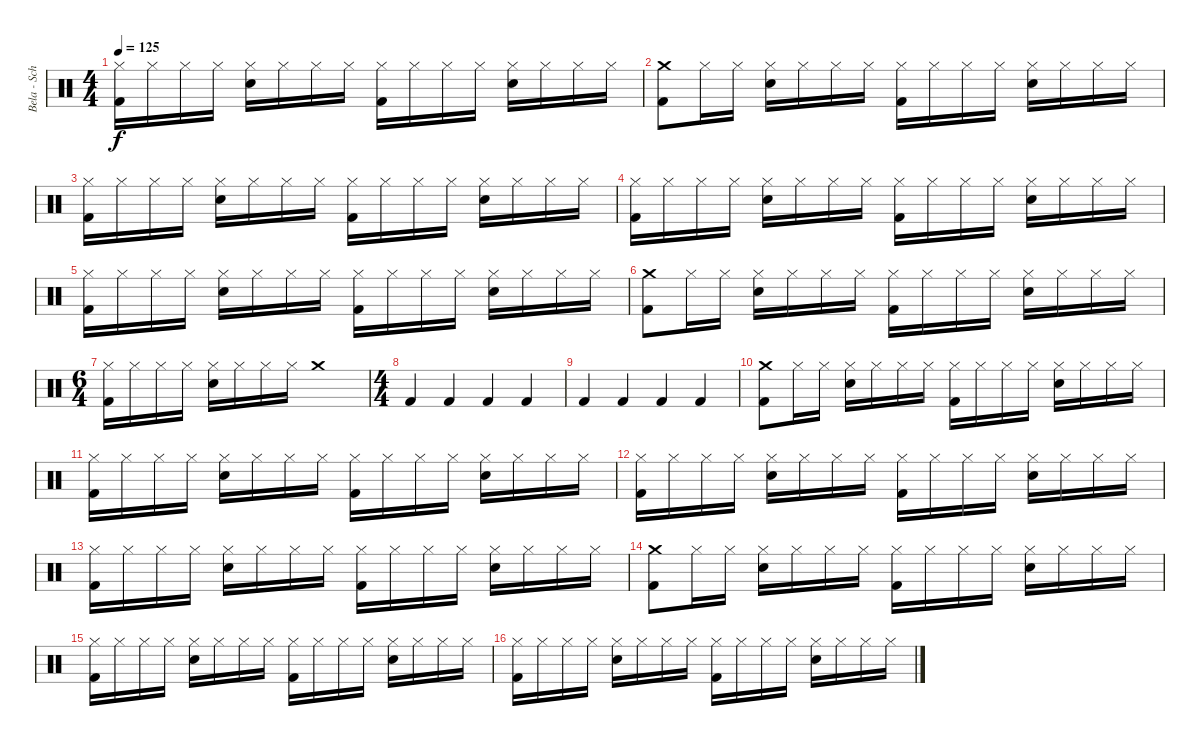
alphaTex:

\track ("Bela - Schlagzeug" "Bela - Sch") {instrument percussion}
\staff {score}
\articulation defaults
\ts (4 4)
\tempo 125
\clef neutral
\ks c
("Hi-Hat (closed)" "Kick (hit) 2").16{dy f} "Hi-Hat (closed)".16 "Hi-Hat (closed)".16 "Hi-Hat (closed)".16 ("Hi-Hat (closed)" "Electric Snare (hit)").16 "Hi-Hat (closed)".16 "Hi-Hat (closed)".16 "Hi-Hat (closed)".16 ("Hi-Hat (closed)" "Kick (hit) 2").16 "Hi-Hat (closed)".16 "Hi-Hat (closed)".16 "Hi-Hat (closed)".16 ("Hi-Hat (closed)" "Electric Snare (hit)").16 "Hi-Hat (closed)".16 "Hi-Hat (closed)".16 "Hi-Hat (closed)".16 |
("Crash medium (hit)" "Kick (hit) 2").8 "Hi-Hat (closed)".16 "Hi-Hat (closed)".16 ("Hi-Hat (closed)" "Electric Snare (hit)").16 "Hi-Hat (closed)".16 "Hi-Hat (closed)".16 "Hi-Hat (closed)".16 ("Hi-Hat (closed)" "Kick (hit) 2").16 "Hi-Hat (closed)".16 "Hi-Hat (closed)".16 "Hi-Hat (closed)".16 ("Hi-Hat (closed)" "Electric Snare (hit)").16 "Hi-Hat (closed)".16 "Hi-Hat (closed)".16 "Hi-Hat (closed)".16 |
("Hi-Hat (closed)" "Kick (hit) 2").16 "Hi-Hat (closed)".16 "Hi-Hat (closed)".16 "Hi-Hat (closed)".16 ("Hi-Hat (closed)" "Electric Snare (hit)").16 "Hi-Hat (closed)".16 "Hi-Hat (closed)".16 "Hi-Hat (closed)".16 ("Hi-Hat (closed)" "Kick (hit) 2").16 "Hi-Hat (closed)".16 "Hi-Hat (closed)".16 "Hi-Hat (closed)".16 ("Hi-Hat (closed)" "Electric Snare (hit)").16 "Hi-Hat (closed)".16 "Hi-Hat (closed)".16 "Hi-Hat (closed)".16 |
("Hi-Hat (closed)" "Kick (hit) 2").16 "Hi-Hat (closed)".16 "Hi-Hat (closed)".16 "Hi-Hat (closed)".16 ("Hi-Hat (closed)" "Electric Snare (hit)").16 "Hi-Hat (closed)".16 "Hi-Hat (closed)".16 "Hi-Hat (closed)".16 ("Hi-Hat (closed)" "Kick (hit) 2").16 "Hi-Hat (closed)".16 "Hi-Hat (closed)".16 "Hi-Hat (closed)".16 ("Hi-Hat (closed)" "Electric Snare (hit)").16 "Hi-Hat (closed)".16 "Hi-Hat (closed)".16 "Hi-Hat (closed)".16 |
("Hi-Hat (closed)" "Kick (hit) 2").16 "Hi-Hat (closed)".16 "Hi-Hat (closed)".16 "Hi-Hat (closed)".16 ("Hi-Hat (closed)" "Electric Snare (hit)").16 "Hi-Hat (closed)".16 "Hi-Hat (closed)".16 "Hi-Hat (closed)".16 ("Hi-Hat (closed)" "Kick (hit) 2").16 "Hi-Hat (closed)".16 "Hi-Hat (closed)".16 "Hi-Hat (closed)".16 ("Hi-Hat (closed)" "Electric Snare (hit)").16 "Hi-Hat (closed)".16 "Hi-Hat (closed)".16 "Hi-Hat (closed)".16 |
("Crash medium (hit)" "Kick (hit) 2").8 "Hi-Hat (closed)".16 "Hi-Hat (closed)".16 ("Hi-Hat (closed)" "Electric Snare (hit)").16 "Hi-Hat (closed)".16 "Hi-Hat (closed)".16 "Hi-Hat (closed)".16 ("Hi-Hat (closed)" "Kick (hit) 2").16 "Hi-Hat (closed)".16 "Hi-Hat (closed)".16 "Hi-Hat (closed)".16 ("Hi-Hat (closed)" "Electric Snare (hit)").16 "Hi-Hat (closed)".16 "Hi-Hat (closed)".16 "Hi-Hat (closed)".16 |
\ts (6 4)
("Hi-Hat (closed)" "Kick (hit) 2").16 "Hi-Hat (closed)".16 "Hi-Hat (closed)".16 "Hi-Hat (closed)".16 ("Hi-Hat (closed)" "Electric Snare (hit)").16 "Hi-Hat (closed)".16 "Hi-Hat (closed)".16 "Hi-Hat (closed)".16 "Crash medium (hit)".1 |
\ts (4 4)
"Kick (hit) 2".4 "Kick (hit) 2".4 "Kick (hit) 2".4 "Kick (hit) 2".4 |
"Kick (hit) 2".4 "Kick (hit) 2".4 "Kick (hit) 2".4 "Kick (hit) 2".4 |
("Crash medium (hit)" "Kick (hit) 2").8 "Hi-Hat (closed)".16 "Hi-Hat (closed)".16 ("Hi-Hat (closed)" "Electric Snare (hit)").16 "Hi-Hat (closed)".16 "Hi-Hat (closed)".16 "Hi-Hat (closed)".16 ("Hi-Hat (closed)" "Kick (hit) 2").16 "Hi-Hat (closed)".16 "Hi-Hat (closed)".16 "Hi-Hat (closed)".16 ("Hi-Hat (closed)" "Electric Snare (hit)").16 "Hi-Hat (closed)".16 "Hi-Hat (closed)".16 "Hi-Hat (closed)".16 |
("Hi-Hat (closed)" "Kick (hit) 2").16 "Hi-Hat (closed)".16 "Hi-Hat (closed)".16 "Hi-Hat (closed)".16 ("Hi-Hat (closed)" "Electric Snare (hit)").16 "Hi-Hat (closed)".16 "Hi-Hat (closed)".16 "Hi-Hat (closed)".16 ("Hi-Hat (closed)" "Kick (hit) 2").16 "Hi-Hat (closed)".16 "Hi-Hat (closed)".16 "Hi-Hat (closed)".16 ("Hi-Hat (closed)" "Electric Snare (hit)").16 "Hi-Hat (closed)".16 "Hi-Hat (closed)".16 "Hi-Hat (closed)".16 |
("Hi-Hat (closed)" "Kick (hit) 2").16 "Hi-Hat (closed)".16 "Hi-Hat (closed)".16 "Hi-Hat (closed)".16 ("Hi-Hat (closed)" "Electric Snare (hit)").16 "Hi-Hat (closed)".16 "Hi-Hat (closed)".16 "Hi-Hat (closed)".16 ("Hi-Hat (closed)" "Kick (hit) 2").16 "Hi-Hat (closed)".16 "Hi-Hat (closed)".16 "Hi-Hat (closed)".16 ("Hi-Hat (closed)" "Electric Snare (hit)").16 "Hi-Hat (closed)".16 "Hi-Hat (closed)".16 "Hi-Hat (closed)".16 |
("Hi-Hat (closed)" "Kick (hit) 2").16 "Hi-Hat (closed)".16 "Hi-Hat (closed)".16 "Hi-Hat (closed)".16 ("Hi-Hat (closed)" "Electric Snare (hit)").16 "Hi-Hat (closed)".16 "Hi-Hat (closed)".16 "Hi-Hat (closed)".16 ("Hi-Hat (closed)" "Kick (hit) 2").16 "Hi-Hat (closed)".16 "Hi-Hat (closed)".16 "Hi-Hat (closed)".16 ("Hi-Hat (closed)" "Electric Snare (hit)").16 "Hi-Hat (closed)".16 "Hi-Hat (closed)".16 "Hi-Hat (closed)".16 |
("Crash medium (hit)" "Kick (hit) 2").8 "Hi-Hat (closed)".16 "Hi-Hat (closed)".16 ("Hi-Hat (closed)" "Electric Snare (hit)").16 "Hi-Hat (closed)".16 "Hi-Hat (closed)".16 "Hi-Hat (closed)".16 ("Hi-Hat (closed)" "Kick (hit) 2").16 "Hi-Hat (closed)".16 "Hi-Hat (closed)".16 "Hi-Hat (closed)".16 ("Hi-Hat (closed)" "Electric Snare (hit)").16 "Hi-Hat (closed)".16 "Hi-Hat (closed)".16 "Hi-Hat (closed)".16 |
("Hi-Hat (closed)" "Kick (hit) 2").16 "Hi-Hat (closed)".16 "Hi-Hat (closed)".16 "Hi-Hat (closed)".16 ("Hi-Hat (closed)" "Electric Snare (hit)").16 "Hi-Hat (closed)".16 "Hi-Hat (closed)".16 "Hi-Hat (closed)".16 ("Hi-Hat (closed)" "Kick (hit) 2").16 "Hi-Hat (closed)".16 "Hi-Hat (closed)".16 "Hi-Hat (closed)".16 ("Hi-Hat (closed)" "Electric Snare (hit)").16 "Hi-Hat (closed)".16 "Hi-Hat (closed)".16 "Hi-Hat (closed)".16 |
("Hi-Hat (closed)" "Kick (hit) 2").16 "Hi-Hat (closed)".16 "Hi-Hat (closed)".16 "Hi-Hat (closed)".16 ("Hi-Hat (closed)" "Electric Snare (hit)").16 "Hi-Hat (closed)".16 "Hi-Hat (closed)".16 "Hi-Hat (closed)".16 ("Hi-Hat (closed)" "Kick (hit) 2").16 "Hi-Hat (closed)".16 "Hi-Hat (closed)".16 "Hi-Hat (closed)".16 ("Hi-Hat (closed)" "Electric Snare (hit)").16 "Hi-Hat (closed)".16 "Hi-Hat (closed)".16 "Hi-Hat (closed)".16
